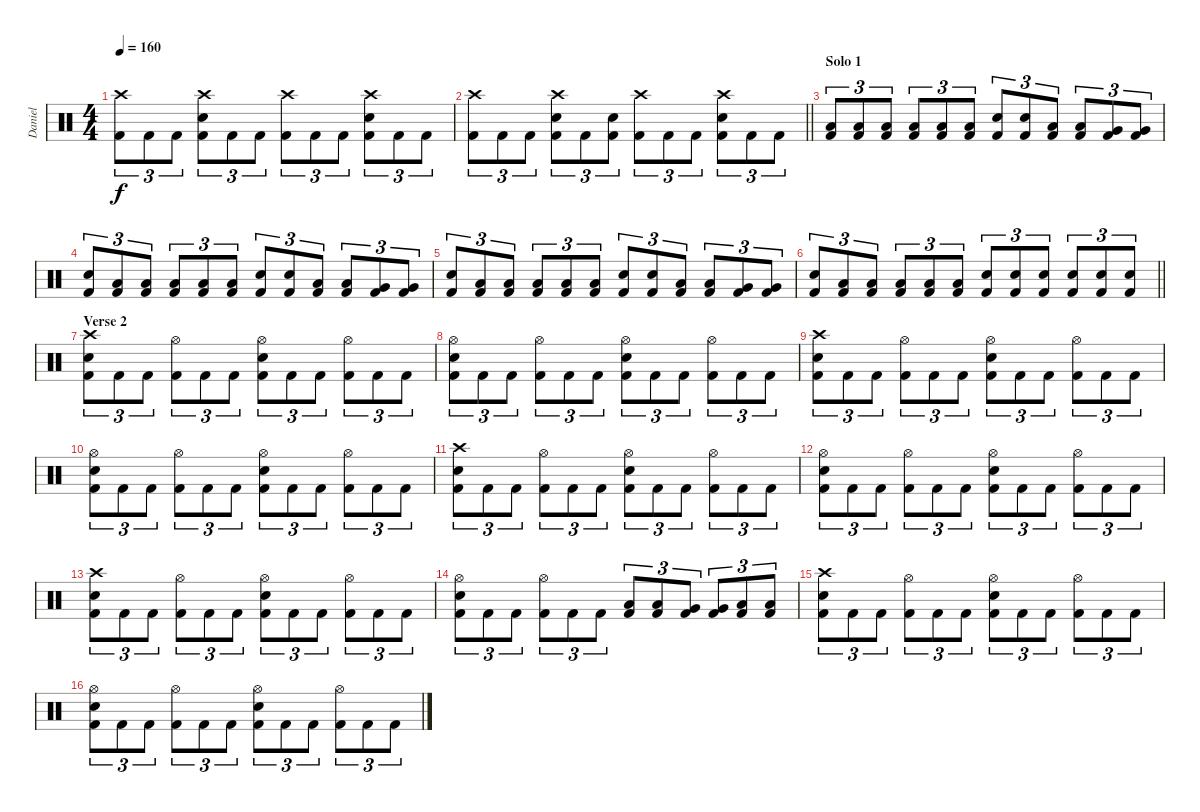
\track ("Daniel" "Daniel") {instrument percussion}
\staff {score}
\articulation defaults
\ts (4 4)
\tempo 160
\clef neutral
\ks c
("Crash high (hit)" "Kick (hit) 2").8{tu (3 2) dy f} "Kick (hit) 2".8{tu (3 2)} "Kick (hit) 2".8{tu (3 2)} ("Crash high (hit)" "Electric Snare (hit)" "Kick (hit) 2").8{tu (3 2)} "Kick (hit) 2".8{tu (3 2)} "Kick (hit) 2".8{tu (3 2)} ("Crash high (hit)" "Kick (hit) 2").8{tu (3 2)} "Kick (hit) 2".8{tu (3 2)} "Kick (hit) 2".8{tu (3 2)} ("Crash high (hit)" "Electric Snare (hit)" "Kick (hit) 2").8{tu (3 2)} "Kick (hit) 2".8{tu (3 2)} "Kick (hit) 2".8{tu (3 2)} |
\barLineRight lightlight
("Crash high (hit)" "Kick (hit) 2").8{tu (3 2)} "Kick (hit) 2".8{tu (3 2)} "Kick (hit) 2".8{tu (3 2)} ("Crash high (hit)" "Electric Snare (hit)" "Kick (hit) 2").8{tu (3 2)} "Kick (hit) 2".8{tu (3 2)} ("Electric Snare (hit)" "Kick (hit) 2").8{tu (3 2)} ("Crash high (hit)" "Kick (hit) 2").8{tu (3 2)} "Kick (hit) 2".8{tu (3 2)} "Kick (hit) 2".8{tu (3 2)} ("Crash high (hit)" "Electric Snare (hit)" "Kick (hit) 2").8{tu (3 2)} "Kick (hit) 2".8{tu (3 2)} "Kick (hit) 2".8{tu (3 2)} |
\section ("" "Solo 1")
("Low Floor Tom (hit)" "Kick (hit) 2").8{tu (3 2)} ("Low Floor Tom (hit)" "Kick (hit) 2").8{tu (3 2)} ("Low Floor Tom (hit)" "Kick (hit) 2").8{tu (3 2)} ("Low Floor Tom (hit)" "Kick (hit) 2").8{tu (3 2)} ("Low Floor Tom (hit)" "Kick (hit) 2").8{tu (3 2)} ("Low Floor Tom (hit)" "Kick (hit) 2").8{tu (3 2)} ("Electric Snare (hit)" "Kick (hit) 2").8{tu (3 2)} ("Electric Snare (hit)" "Kick (hit) 2").8{tu (3 2)} ("Low Tom (hit)" "Kick (hit) 2").8{tu (3 2)} ("Low Tom (hit)" "Kick (hit) 2").8{tu (3 2)} ("Very Low Tom (hit)" "Kick (hit) 2").8{tu (3 2)} ("Very Low Tom (hit)" "Kick (hit) 2").8{tu (3 2)} |
("Electric Snare (hit)" "Kick (hit) 2").8{tu (3 2)} ("Low Floor Tom (hit)" "Kick (hit) 2").8{tu (3 2)} ("Low Floor Tom (hit)" "Kick (hit) 2").8{tu (3 2)} ("Low Floor Tom (hit)" "Kick (hit) 2").8{tu (3 2)} ("Low Floor Tom (hit)" "Kick (hit) 2").8{tu (3 2)} ("Low Floor Tom (hit)" "Kick (hit) 2").8{tu (3 2)} ("Electric Snare (hit)" "Kick (hit) 2").8{tu (3 2)} ("Electric Snare (hit)" "Kick (hit) 2").8{tu (3 2)} ("Low Tom (hit)" "Kick (hit) 2").8{tu (3 2)} ("Low Tom (hit)" "Kick (hit) 2").8{tu (3 2)} ("Very Low Tom (hit)" "Kick (hit) 2").8{tu (3 2)} ("Very Low Tom (hit)" "Kick (hit) 2").8{tu (3 2)} |
("Electric Snare (hit)" "Kick (hit) 2").8{tu (3 2)} ("Low Floor Tom (hit)" "Kick (hit) 2").8{tu (3 2)} ("Low Floor Tom (hit)" "Kick (hit) 2").8{tu (3 2)} ("Low Floor Tom (hit)" "Kick (hit) 2").8{tu (3 2)} ("Low Floor Tom (hit)" "Kick (hit) 2").8{tu (3 2)} ("Low Floor Tom (hit)" "Kick (hit) 2").8{tu (3 2)} ("Electric Snare (hit)" "Kick (hit) 2").8{tu (3 2)} ("Electric Snare (hit)" "Kick (hit) 2").8{tu (3 2)} ("Low Tom (hit)" "Kick (hit) 2").8{tu (3 2)} ("Low Tom (hit)" "Kick (hit) 2").8{tu (3 2)} ("Very Low Tom (hit)" "Kick (hit) 2").8{tu (3 2)} ("Very Low Tom (hit)" "Kick (hit) 2").8{tu (3 2)} |
\barLineRight lightlight
("Electric Snare (hit)" "Kick (hit) 2").8{tu (3 2)} ("Low Floor Tom (hit)" "Kick (hit) 2").8{tu (3 2)} ("Low Floor Tom (hit)" "Kick (hit) 2").8{tu (3 2)} ("Low Floor Tom (hit)" "Kick (hit) 2").8{tu (3 2)} ("Low Floor Tom (hit)" "Kick (hit) 2").8{tu (3 2)} ("Low Floor Tom (hit)" "Kick (hit) 2").8{tu (3 2)} ("Electric Snare (hit)" "Kick (hit) 2").8{tu (3 2)} ("Electric Snare (hit)" "Kick (hit) 2").8{tu (3 2)} ("Electric Snare (hit)" "Kick (hit) 2").8{tu (3 2)} ("Electric Snare (hit)" "Kick (hit) 2").8{tu (3 2)} ("Electric Snare (hit)" "Kick (hit) 2").8{tu (3 2)} ("Electric Snare (hit)" "Kick (hit) 2").8{tu (3 2)} |
\section ("" "Verse 2")
("Crash high (hit)" "Electric Snare (hit)" "Kick (hit) 2").8{tu (3 2)} "Kick (hit) 2".8{tu (3 2)} "Kick (hit) 2".8{tu (3 2)} ("Hi-Hat (open)" "Kick (hit) 2").8{tu (3 2)} "Kick (hit) 2".8{tu (3 2)} "Kick (hit) 2".8{tu (3 2)} ("Hi-Hat (open)" "Electric Snare (hit)" "Kick (hit) 2").8{tu (3 2)} "Kick (hit) 2".8{tu (3 2)} "Kick (hit) 2".8{tu (3 2)} ("Hi-Hat (open)" "Kick (hit) 2").8{tu (3 2)} "Kick (hit) 2".8{tu (3 2)} "Kick (hit) 2".8{tu (3 2)} |
("Hi-Hat (open)" "Electric Snare (hit)" "Kick (hit) 2").8{tu (3 2)} "Kick (hit) 2".8{tu (3 2)} "Kick (hit) 2".8{tu (3 2)} ("Hi-Hat (open)" "Kick (hit) 2").8{tu (3 2)} "Kick (hit) 2".8{tu (3 2)} "Kick (hit) 2".8{tu (3 2)} ("Hi-Hat (open)" "Electric Snare (hit)" "Kick (hit) 2").8{tu (3 2)} "Kick (hit) 2".8{tu (3 2)} "Kick (hit) 2".8{tu (3 2)} ("Hi-Hat (open)" "Kick (hit) 2").8{tu (3 2)} "Kick (hit) 2".8{tu (3 2)} "Kick (hit) 2".8{tu (3 2)} |
("Crash high (hit)" "Electric Snare (hit)" "Kick (hit) 2").8{tu (3 2)} "Kick (hit) 2".8{tu (3 2)} "Kick (hit) 2".8{tu (3 2)} ("Hi-Hat (open)" "Kick (hit) 2").8{tu (3 2)} "Kick (hit) 2".8{tu (3 2)} "Kick (hit) 2".8{tu (3 2)} ("Hi-Hat (open)" "Electric Snare (hit)" "Kick (hit) 2").8{tu (3 2)} "Kick (hit) 2".8{tu (3 2)} "Kick (hit) 2".8{tu (3 2)} ("Hi-Hat (open)" "Kick (hit) 2").8{tu (3 2)} "Kick (hit) 2".8{tu (3 2)} "Kick (hit) 2".8{tu (3 2)} |
("Hi-Hat (open)" "Electric Snare (hit)" "Kick (hit) 2").8{tu (3 2)} "Kick (hit) 2".8{tu (3 2)} "Kick (hit) 2".8{tu (3 2)} ("Hi-Hat (open)" "Kick (hit) 2").8{tu (3 2)} "Kick (hit) 2".8{tu (3 2)} "Kick (hit) 2".8{tu (3 2)} ("Hi-Hat (open)" "Electric Snare (hit)" "Kick (hit) 2").8{tu (3 2)} "Kick (hit) 2".8{tu (3 2)} "Kick (hit) 2".8{tu (3 2)} ("Hi-Hat (open)" "Kick (hit) 2").8{tu (3 2)} "Kick (hit) 2".8{tu (3 2)} "Kick (hit) 2".8{tu (3 2)} |
("Crash high (hit)" "Electric Snare (hit)" "Kick (hit) 2").8{tu (3 2)} "Kick (hit) 2".8{tu (3 2)} "Kick (hit) 2".8{tu (3 2)} ("Hi-Hat (open)" "Kick (hit) 2").8{tu (3 2)} "Kick (hit) 2".8{tu (3 2)} "Kick (hit) 2".8{tu (3 2)} ("Hi-Hat (open)" "Electric Snare (hit)" "Kick (hit) 2").8{tu (3 2)} "Kick (hit) 2".8{tu (3 2)} "Kick (hit) 2".8{tu (3 2)} ("Hi-Hat (open)" "Kick (hit) 2").8{tu (3 2)} "Kick (hit) 2".8{tu (3 2)} "Kick (hit) 2".8{tu (3 2)} |
("Hi-Hat (open)" "Electric Snare (hit)" "Kick (hit) 2").8{tu (3 2)} "Kick (hit) 2".8{tu (3 2)} "Kick (hit) 2".8{tu (3 2)} ("Hi-Hat (open)" "Kick (hit) 2").8{tu (3 2)} "Kick (hit) 2".8{tu (3 2)} "Kick (hit) 2".8{tu (3 2)} ("Hi-Hat (open)" "Electric Snare (hit)" "Kick (hit) 2").8{tu (3 2)} "Kick (hit) 2".8{tu (3 2)} "Kick (hit) 2".8{tu (3 2)} ("Hi-Hat (open)" "Kick (hit) 2").8{tu (3 2)} "Kick (hit) 2".8{tu (3 2)} "Kick (hit) 2".8{tu (3 2)} |
("Crash high (hit)" "Electric Snare (hit)" "Kick (hit) 2").8{tu (3 2)} "Kick (hit) 2".8{tu (3 2)} "Kick (hit) 2".8{tu (3 2)} ("Hi-Hat (open)" "Kick (hit) 2").8{tu (3 2)} "Kick (hit) 2".8{tu (3 2)} "Kick (hit) 2".8{tu (3 2)} ("Hi-Hat (open)" "Electric Snare (hit)" "Kick (hit) 2").8{tu (3 2)} "Kick (hit) 2".8{tu (3 2)} "Kick (hit) 2".8{tu (3 2)} ("Hi-Hat (open)" "Kick (hit) 2").8{tu (3 2)} "Kick (hit) 2".8{tu (3 2)} "Kick (hit) 2".8{tu (3 2)} |
("Hi-Hat (open)" "Electric Snare (hit)" "Kick (hit) 2").8{tu (3 2)} "Kick (hit) 2".8{tu (3 2)} "Kick (hit) 2".8{tu (3 2)} ("Hi-Hat (open)" "Kick (hit) 2").8{tu (3 2)} "Kick (hit) 2".8{tu (3 2)} "Kick (hit) 2".8{tu (3 2)} ("Low Tom (hit)" "Kick (hit) 2").8{tu (3 2)} ("Low Tom (hit)" "Kick (hit) 2").8{tu (3 2)} ("Very Low Tom (hit)" "Kick (hit) 2").8{tu (3 2)} ("Very Low Tom (hit)" "Kick (hit) 2").8{tu (3 2)} ("Low Floor Tom (hit)" "Kick (hit) 2").8{tu (3 2)} ("Low Floor Tom (hit)" "Kick (hit) 2").8{tu (3 2)} |
("Crash high (hit)" "Electric Snare (hit)" "Kick (hit) 2").8{tu (3 2)} "Kick (hit) 2".8{tu (3 2)} "Kick (hit) 2".8{tu (3 2)} ("Hi-Hat (open)" "Kick (hit) 2").8{tu (3 2)} "Kick (hit) 2".8{tu (3 2)} "Kick (hit) 2".8{tu (3 2)} ("Hi-Hat (open)" "Electric Snare (hit)" "Kick (hit) 2").8{tu (3 2)} "Kick (hit) 2".8{tu (3 2)} "Kick (hit) 2".8{tu (3 2)} ("Hi-Hat (open)" "Kick (hit) 2").8{tu (3 2)} "Kick (hit) 2".8{tu (3 2)} "Kick (hit) 2".8{tu (3 2)} |
("Hi-Hat (open)" "Electric Snare (hit)" "Kick (hit) 2").8{tu (3 2)} "Kick (hit) 2".8{tu (3 2)} "Kick (hit) 2".8{tu (3 2)} ("Hi-Hat (open)" "Kick (hit) 2").8{tu (3 2)} "Kick (hit) 2".8{tu (3 2)} "Kick (hit) 2".8{tu (3 2)} ("Hi-Hat (open)" "Electric Snare (hit)" "Kick (hit) 2").8{tu (3 2)} "Kick (hit) 2".8{tu (3 2)} "Kick (hit) 2".8{tu (3 2)} ("Hi-Hat (open)" "Kick (hit) 2").8{tu (3 2)} "Kick (hit) 2".8{tu (3 2)} "Kick (hit) 2".8{tu (3 2)}
